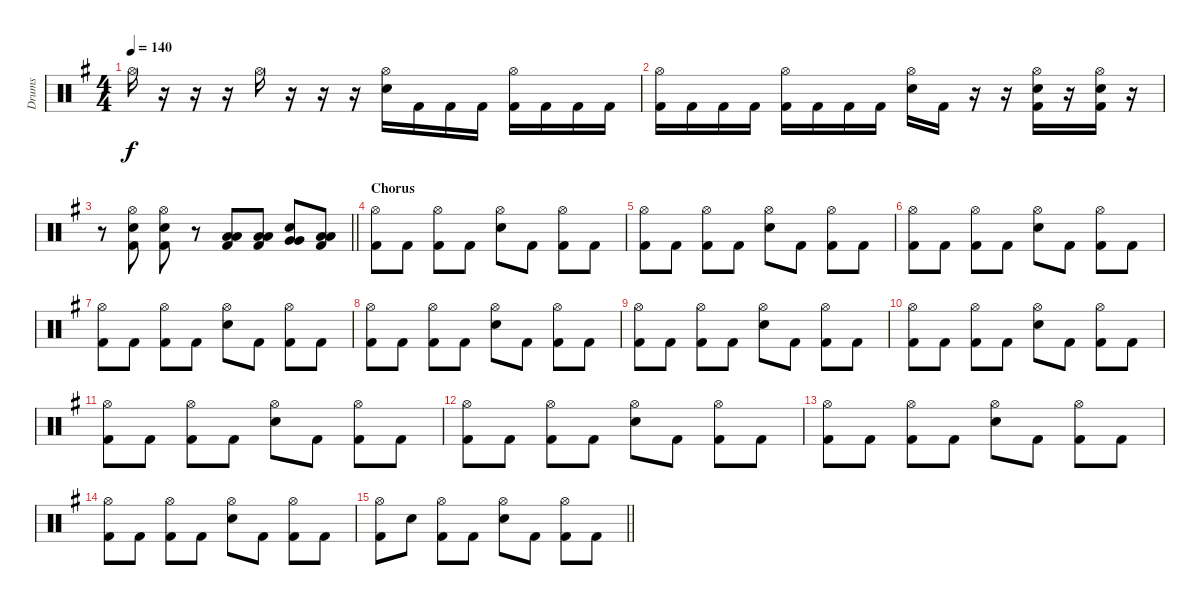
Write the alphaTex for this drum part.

\track ("Drums" "Drums") {instrument percussion}
\staff {score}
\articulation defaults
\ts (4 4)
\tempo 140
\clef neutral
\ks g "Hi-Hat (open)".16{dy f}
r.16 r.16 r.16 "Hi-Hat (open)".16 r.16 r.16 r.16 ("Hi-Hat (open)" "Electric Snare (hit)").16 "Kick (hit) 2".16 "Kick (hit) 2".16 "Kick (hit) 2".16 ("Hi-Hat (open)" "Kick (hit) 2").16 "Kick (hit) 2".16 "Kick (hit) 2".16 "Kick (hit) 2".16 |
("Hi-Hat (open)" "Kick (hit) 2").16 "Kick (hit) 2".16 "Kick (hit) 2".16 "Kick (hit) 2".16 ("Hi-Hat (open)" "Kick (hit) 2").16 "Kick (hit) 2".16 "Kick (hit) 2".16 "Kick (hit) 2".16 ("Hi-Hat (open)" "Electric Snare (hit)").16 "Kick (hit) 2".16 r.16 r.16 ("Hi-Hat (open)" "Electric Snare (hit)" "Kick (hit) 2").16 r.16 ("Hi-Hat (open)" "Electric Snare (hit)" "Kick (hit) 2").16 r.16 |
\barLineRight lightlight
r.8 ("Hi-Hat (open)" "Kick (hit) 2" "Electric Snare (hit)").8 ("Hi-Hat (open)" "Kick (hit) 2" "Electric Snare (hit)").8 r.8 ("Kick (hit) 2" "Low Floor Tom (hit)" "Low Floor Tom (hit)").8 ("Kick (hit) 2" "Low Floor Tom (hit)" "Low Floor Tom (hit)").8 ("Electric Snare (hit)" "Very Low Tom (hit)" "Very Low Tom (hit)").8 ("Kick (hit) 2" "Low Floor Tom (hit)" "Low Floor Tom (hit)").8 |
\section ("" "Chorus")
("Hi-Hat (open)" "Kick (hit) 2").8 "Kick (hit) 2".8 ("Hi-Hat (open)" "Kick (hit) 2").8 "Kick (hit) 2".8 ("Hi-Hat (open)" "Electric Snare (hit)").8 "Kick (hit) 2".8 ("Hi-Hat (open)" "Kick (hit) 2").8 "Kick (hit) 2".8 |
("Hi-Hat (open)" "Kick (hit) 2").8 "Kick (hit) 2".8 ("Hi-Hat (open)" "Kick (hit) 2").8 "Kick (hit) 2".8 ("Hi-Hat (open)" "Electric Snare (hit)").8 "Kick (hit) 2".8 ("Hi-Hat (open)" "Kick (hit) 2").8 "Kick (hit) 2".8 |
("Hi-Hat (open)" "Kick (hit) 2").8 "Kick (hit) 2".8 ("Hi-Hat (open)" "Kick (hit) 2").8 "Kick (hit) 2".8 ("Hi-Hat (open)" "Electric Snare (hit)").8 "Kick (hit) 2".8 ("Hi-Hat (open)" "Kick (hit) 2").8 "Kick (hit) 2".8 |
("Hi-Hat (open)" "Kick (hit) 2").8 "Kick (hit) 2".8 ("Hi-Hat (open)" "Kick (hit) 2").8 "Kick (hit) 2".8 ("Hi-Hat (open)" "Electric Snare (hit)").8 "Kick (hit) 2".8 ("Hi-Hat (open)" "Kick (hit) 2").8 "Kick (hit) 2".8 |
("Hi-Hat (open)" "Kick (hit) 2").8 "Kick (hit) 2".8 ("Hi-Hat (open)" "Kick (hit) 2").8 "Kick (hit) 2".8 ("Hi-Hat (open)" "Electric Snare (hit)").8 "Kick (hit) 2".8 ("Hi-Hat (open)" "Kick (hit) 2").8 "Kick (hit) 2".8 |
("Hi-Hat (open)" "Kick (hit) 2").8 "Kick (hit) 2".8 ("Hi-Hat (open)" "Kick (hit) 2").8 "Kick (hit) 2".8 ("Hi-Hat (open)" "Electric Snare (hit)").8 "Kick (hit) 2".8 ("Hi-Hat (open)" "Kick (hit) 2").8 "Kick (hit) 2".8 |
("Hi-Hat (open)" "Kick (hit) 2").8 "Kick (hit) 2".8 ("Hi-Hat (open)" "Kick (hit) 2").8 "Kick (hit) 2".8 ("Hi-Hat (open)" "Electric Snare (hit)").8 "Kick (hit) 2".8 ("Hi-Hat (open)" "Kick (hit) 2").8 "Kick (hit) 2".8 |
("Hi-Hat (open)" "Kick (hit) 2").8 "Kick (hit) 2".8 ("Hi-Hat (open)" "Kick (hit) 2").8 "Kick (hit) 2".8 ("Hi-Hat (open)" "Electric Snare (hit)").8 "Kick (hit) 2".8 ("Hi-Hat (open)" "Kick (hit) 2").8 "Kick (hit) 2".8 |
("Hi-Hat (open)" "Kick (hit) 2").8 "Kick (hit) 2".8 ("Hi-Hat (open)" "Kick (hit) 2").8 "Kick (hit) 2".8 ("Hi-Hat (open)" "Electric Snare (hit)").8 "Kick (hit) 2".8 ("Hi-Hat (open)" "Kick (hit) 2").8 "Kick (hit) 2".8 |
("Hi-Hat (open)" "Kick (hit) 2").8 "Kick (hit) 2".8 ("Hi-Hat (open)" "Kick (hit) 2").8 "Kick (hit) 2".8 ("Hi-Hat (open)" "Electric Snare (hit)").8 "Kick (hit) 2".8 ("Hi-Hat (open)" "Kick (hit) 2").8 "Kick (hit) 2".8 |
("Hi-Hat (open)" "Kick (hit) 2").8 "Kick (hit) 2".8 ("Hi-Hat (open)" "Kick (hit) 2").8 "Kick (hit) 2".8 ("Hi-Hat (open)" "Electric Snare (hit)").8 "Kick (hit) 2".8 ("Hi-Hat (open)" "Kick (hit) 2").8 "Kick (hit) 2".8 |
\barLineRight lightlight
("Hi-Hat (open)" "Kick (hit) 2").8 "Electric Snare (hit)".8 ("Hi-Hat (open)" "Kick (hit) 2").8 "Kick (hit) 2".8 ("Hi-Hat (open)" "Electric Snare (hit)").8 "Kick (hit) 2".8 ("Hi-Hat (open)" "Kick (hit) 2").8 "Kick (hit) 2".8
